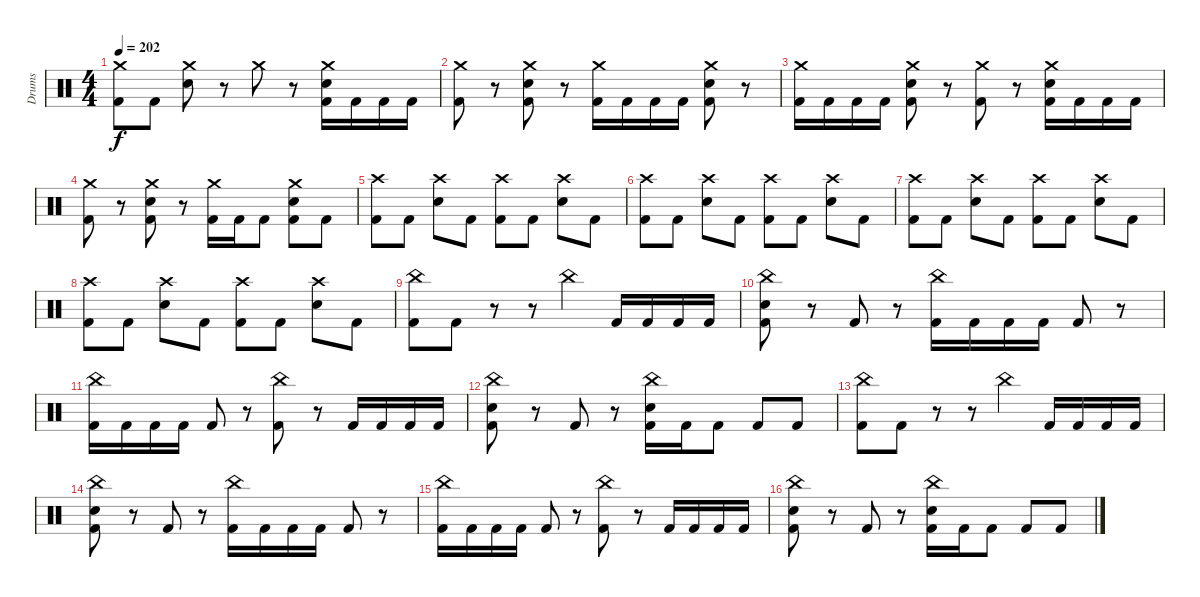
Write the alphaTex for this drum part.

\track ("Drums" "Drums") {instrument percussion}
\staff {score}
\articulation defaults
\ts (4 4)
\tempo 202
\clef neutral
\ks c
("Crash medium (hit)" "Kick (hit) 2").8{dy f} "Kick (hit) 2".8 ("Crash medium (hit)" "Electric Snare (hit)").8 r.8 "Crash medium (hit)".8 r.8 ("Crash medium (hit)" "Electric Snare (hit)" "Kick (hit) 2").16 "Kick (hit) 2".16 "Kick (hit) 2".16 "Kick (hit) 2".16 |
("Crash medium (hit)" "Kick (hit) 2").8 r.8 ("Crash medium (hit)" "Electric Snare (hit)" "Kick (hit) 2").8 r.8 ("Crash medium (hit)" "Kick (hit) 2").16 "Kick (hit) 2".16 "Kick (hit) 2".16 "Kick (hit) 2".16 ("Crash medium (hit)" "Electric Snare (hit)" "Kick (hit) 2").8 r.8 |
("Crash medium (hit)" "Kick (hit) 2").16 "Kick (hit) 2".16 "Kick (hit) 2".16 "Kick (hit) 2".16 ("Crash medium (hit)" "Electric Snare (hit)" "Kick (hit) 2").8 r.8 ("Crash medium (hit)" "Kick (hit) 2").8 r.8 ("Crash medium (hit)" "Electric Snare (hit)" "Kick (hit) 2").16 "Kick (hit) 2".16 "Kick (hit) 2".16 "Kick (hit) 2".16 |
("Crash medium (hit)" "Kick (hit) 2").8 r.8 ("Crash medium (hit)" "Electric Snare (hit)" "Kick (hit) 2").8 r.8 ("Crash medium (hit)" "Kick (hit) 2").16 "Kick (hit) 2".16 "Kick (hit) 2".8 ("Crash medium (hit)" "Electric Snare (hit)" "Kick (hit) 2").8 "Kick (hit) 2".8 |
("Crash high (hit)" "Kick (hit) 2").8 "Kick (hit) 2".8 ("Crash high (hit)" "Electric Snare (hit)").8 "Kick (hit) 2".8 ("Crash high (hit)" "Kick (hit) 2").8 "Kick (hit) 2".8 ("Crash high (hit)" "Electric Snare (hit)").8 "Kick (hit) 2".8 |
("Crash high (hit)" "Kick (hit) 2").8 "Kick (hit) 2".8 ("Crash high (hit)" "Electric Snare (hit)").8 "Kick (hit) 2".8 ("Crash high (hit)" "Kick (hit) 2").8 "Kick (hit) 2".8 ("Crash high (hit)" "Electric Snare (hit)").8 "Kick (hit) 2".8 |
("Crash high (hit)" "Kick (hit) 2").8 "Kick (hit) 2".8 ("Crash high (hit)" "Electric Snare (hit)").8 "Kick (hit) 2".8 ("Crash high (hit)" "Kick (hit) 2").8 "Kick (hit) 2".8 ("Crash high (hit)" "Electric Snare (hit)").8 "Kick (hit) 2".8 |
("Crash high (hit)" "Kick (hit) 2").8 "Kick (hit) 2".8 ("Crash high (hit)" "Electric Snare (hit)").8 "Kick (hit) 2".8 ("Crash high (hit)" "Kick (hit) 2").8 "Kick (hit) 2".8 ("Crash high (hit)" "Electric Snare (hit)").8 "Kick (hit) 2".8 |
("China (hit)" "Kick (hit) 2").8 "Kick (hit) 2".8 r.8 r.8 "China (hit)".4 "Kick (hit) 2".16 "Kick (hit) 2".16 "Kick (hit) 2".16 "Kick (hit) 2".16 |
("China (hit)" "Electric Snare (hit)" "Kick (hit) 2").8 r.8 "Kick (hit) 2".8 r.8 ("China (hit)" "Kick (hit) 2").16 "Kick (hit) 2".16 "Kick (hit) 2".16 "Kick (hit) 2".16 "Kick (hit) 2".8 r.8 |
("China (hit)" "Kick (hit) 2").16 "Kick (hit) 2".16 "Kick (hit) 2".16 "Kick (hit) 2".16 "Kick (hit) 2".8 r.8 ("China (hit)" "Kick (hit) 2").8 r.8 "Kick (hit) 2".16 "Kick (hit) 2".16 "Kick (hit) 2".16 "Kick (hit) 2".16 |
("China (hit)" "Electric Snare (hit)" "Kick (hit) 2").8 r.8 "Kick (hit) 2".8 r.8 ("China (hit)" "Electric Snare (hit)" "Kick (hit) 2").16 "Kick (hit) 2".16 "Kick (hit) 2".8 "Kick (hit) 2".8 "Kick (hit) 2".8 |
("China (hit)" "Kick (hit) 2").8 "Kick (hit) 2".8 r.8 r.8 "China (hit)".4 "Kick (hit) 2".16 "Kick (hit) 2".16 "Kick (hit) 2".16 "Kick (hit) 2".16 |
("China (hit)" "Electric Snare (hit)" "Kick (hit) 2").8 r.8 "Kick (hit) 2".8 r.8 ("China (hit)" "Kick (hit) 2").16 "Kick (hit) 2".16 "Kick (hit) 2".16 "Kick (hit) 2".16 "Kick (hit) 2".8 r.8 |
("China (hit)" "Kick (hit) 2").16 "Kick (hit) 2".16 "Kick (hit) 2".16 "Kick (hit) 2".16 "Kick (hit) 2".8 r.8 ("China (hit)" "Kick (hit) 2").8 r.8 "Kick (hit) 2".16 "Kick (hit) 2".16 "Kick (hit) 2".16 "Kick (hit) 2".16 |
("China (hit)" "Electric Snare (hit)" "Kick (hit) 2").8 r.8 "Kick (hit) 2".8 r.8 ("China (hit)" "Electric Snare (hit)" "Kick (hit) 2").16 "Kick (hit) 2".16 "Kick (hit) 2".8 "Kick (hit) 2".8 "Kick (hit) 2".8
